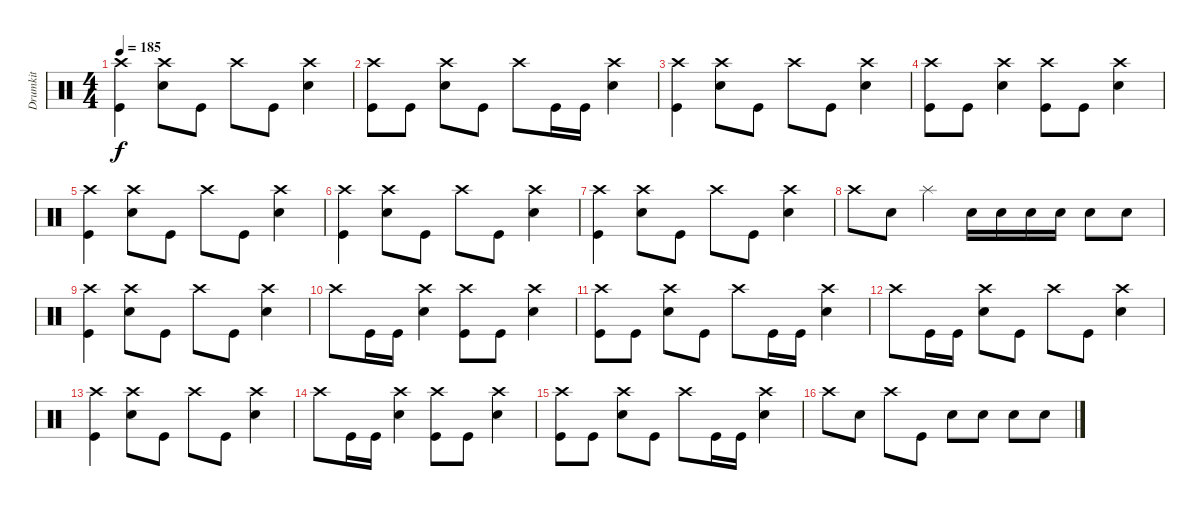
\track ("Drumkit" "Drumkit") {instrument percussion}
\staff {score}
\articulation defaults
\ts (4 4)
\tempo 185
\clef neutral
\ks c
("Crash high (hit)" "Kick (hit)").4{dy f} ("Crash high (hit)" "Snare (hit) 2").8 "Kick (hit)".8 "Crash high (hit)".8 "Kick (hit)".8 ("Snare (hit) 2" "Crash high (hit)").4 |
("Crash high (hit)" "Kick (hit)").8 "Kick (hit)".8 ("Snare (hit) 2" "Crash high (hit)").8 "Kick (hit)".8 "Crash high (hit)".8 "Kick (hit)".16 "Kick (hit)".16 ("Snare (hit) 2" "Crash high (hit)").4 |
("Crash high (hit)" "Kick (hit)").4 ("Crash high (hit)" "Snare (hit) 2").8 "Kick (hit)".8 "Crash high (hit)".8 "Kick (hit)".8 ("Snare (hit) 2" "Crash high (hit)").4 |
("Crash high (hit)" "Kick (hit)").8 "Kick (hit)".8 ("Snare (hit) 2" "Crash high (hit)").4 ("Kick (hit)" "Crash high (hit)").8 "Kick (hit)".8 ("Snare (hit) 2" "Crash high (hit)").4 |
("Crash high (hit)" "Kick (hit)").4 ("Crash high (hit)" "Snare (hit) 2").8 "Kick (hit)".8 "Crash high (hit)".8 "Kick (hit)".8 ("Snare (hit) 2" "Crash high (hit)").4 |
("Crash high (hit)" "Kick (hit)").4 ("Crash high (hit)" "Snare (hit) 2").8 "Kick (hit)".8 "Crash high (hit)".8 "Kick (hit)".8 ("Snare (hit) 2" "Crash high (hit)").4 |
("Crash high (hit)" "Kick (hit)").4 ("Crash high (hit)" "Snare (hit) 2").8 "Kick (hit)".8 "Crash high (hit)".8 "Kick (hit)".8 ("Snare (hit) 2" "Crash high (hit)").4 |
"Crash high (hit)".8 "Snare (hit) 2".8 "Splash (hit)".4 "Snare (hit) 2".16 "Snare (hit) 2".16 "Snare (hit) 2".16 "Snare (hit) 2".16 "Snare (hit) 2".8 "Snare (hit) 2".8 |
("Crash high (hit)" "Kick (hit)").4 ("Snare (hit) 2" "Crash high (hit)").8 "Kick (hit)".8 "Crash high (hit)".8 "Kick (hit)".8 ("Snare (hit) 2" "Crash high (hit)").4 |
"Crash high (hit)".8 "Kick (hit)".16 "Kick (hit)".16 ("Snare (hit) 2" "Crash high (hit)").4 ("Crash high (hit)" "Kick (hit)").8 "Kick (hit)".8 ("Snare (hit) 2" "Crash high (hit)").4 |
("Crash high (hit)" "Kick (hit)").8 "Kick (hit)".8 ("Snare (hit) 2" "Crash high (hit)").8 "Kick (hit)".8 "Crash high (hit)".8 "Kick (hit)".16 "Kick (hit)".16 ("Snare (hit) 2" "Crash high (hit)").4 |
"Crash high (hit)".8 "Kick (hit)".16 "Kick (hit)".16 ("Snare (hit) 2" "Crash high (hit)").8 "Kick (hit)".8 "Crash high (hit)".8 "Kick (hit)".8 ("Snare (hit) 2" "Crash high (hit)").4 |
("Crash high (hit)" "Kick (hit)").4 ("Snare (hit) 2" "Crash high (hit)").8 "Kick (hit)".8 "Crash high (hit)".8 "Kick (hit)".8 ("Snare (hit) 2" "Crash high (hit)").4 |
"Crash high (hit)".8 "Kick (hit)".16 "Kick (hit)".16 ("Snare (hit) 2" "Crash high (hit)").4 ("Crash high (hit)" "Kick (hit)").8 "Kick (hit)".8 ("Snare (hit) 2" "Crash high (hit)").4 |
("Crash high (hit)" "Kick (hit)").8 "Kick (hit)".8 ("Snare (hit) 2" "Crash high (hit)").8 "Kick (hit)".8 "Crash high (hit)".8 "Kick (hit)".16 "Kick (hit)".16 ("Snare (hit) 2" "Crash high (hit)").4 |
"Crash high (hit)".8 "Snare (hit) 2".8 "Crash high (hit)".8 "Kick (hit)".8 "Snare (hit) 2".8 "Snare (hit) 2".8 "Snare (hit) 2".8 "Snare (hit) 2".8
